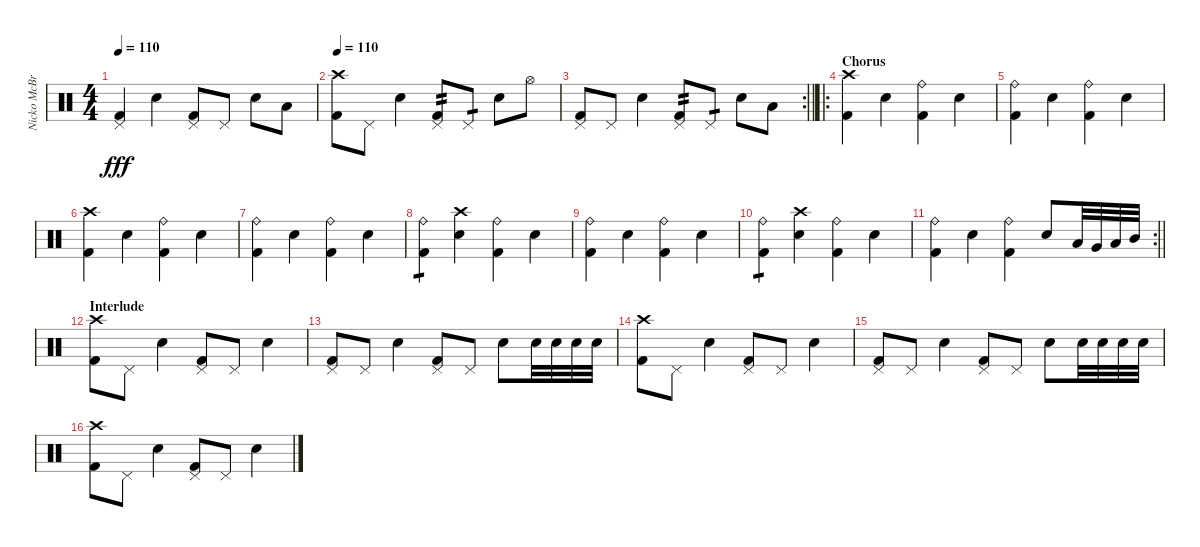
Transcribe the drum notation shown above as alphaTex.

\track ("Nicko McBrain" "Nicko McBr") {instrument percussion}
\staff {score}
\articulation defaults
\ts (4 4)
\tempo 110
\clef neutral
\ks c
("Pedal Hi-Hat (hit)" "Kick (hit) 2").4{dy fff} "Electric Snare (hit)".4 ("Pedal Hi-Hat (hit)" "Kick (hit) 2").8 "Pedal Hi-Hat (hit)".8 "Electric Snare (hit)".8 "Low Floor Tom (hit)".8 |
\tempo 110
("Crash high (hit)" "Kick (hit) 2").8 "Pedal Hi-Hat (hit)".8 "Electric Snare (hit)".4 ("Pedal Hi-Hat (hit)" "Kick (hit) 2").8{tp 2} "Pedal Hi-Hat (hit)".8{tp 1} "Electric Snare (hit)".8 "Hi-Hat (open)".8 |
\rc 2
\barLineRight lightlight
("Pedal Hi-Hat (hit)" "Kick (hit) 2").8 "Pedal Hi-Hat (hit)".8 "Electric Snare (hit)".4 ("Pedal Hi-Hat (hit)" "Kick (hit) 2").8{tp 2} "Pedal Hi-Hat (hit)".8{tp 1} "Electric Snare (hit)".8 "Low Floor Tom (hit)".8 |
\ro
\section ("" "Chorus")
("Crash high (hit)" "Kick (hit) 2").4 "Electric Snare (hit)".4 ("Ride (bell)" "Kick (hit) 2").4 "Electric Snare (hit)".4 |
("Ride (bell)" "Kick (hit) 2").4 "Electric Snare (hit)".4 ("Ride (bell)" "Kick (hit) 2").4 "Electric Snare (hit)".4 |
("Crash high (hit)" "Kick (hit) 2").4 "Electric Snare (hit)".4 ("Ride (bell)" "Kick (hit) 2").4 "Electric Snare (hit)".4 |
("Ride (bell)" "Kick (hit) 2").4 "Electric Snare (hit)".4 ("Ride (bell)" "Kick (hit) 2").4 "Electric Snare (hit)".4 |
("Ride (bell)" "Kick (hit) 2").4{tp 1} ("Electric Snare (hit)" "Crash high (hit)").4 ("Ride (bell)" "Kick (hit) 2").4 "Electric Snare (hit)".4 |
("Ride (bell)" "Kick (hit) 2").4 "Electric Snare (hit)".4 ("Ride (bell)" "Kick (hit) 2").4 "Electric Snare (hit)".4 |
("Ride (bell)" "Kick (hit) 2").4{tp 1} ("Electric Snare (hit)" "Crash high (hit)").4 ("Ride (bell)" "Kick (hit) 2").4 "Electric Snare (hit)".4 |
\rc 2
\barLineRight lightlight
("Ride (bell)" "Kick (hit) 2").4 "Electric Snare (hit)".4 ("Ride (bell)" "Kick (hit) 2").4 "Electric Snare (hit)".8 "Low Floor Tom (hit)".32 "Very Low Tom (hit)".32 "Low Tom (hit)".32 "Mid Tom (hit)".32 |
\section ("" "Interlude")
("Crash high (hit)" "Kick (hit) 2").8 "Pedal Hi-Hat (hit)".8 "Electric Snare (hit)".4 ("Pedal Hi-Hat (hit)" "Kick (hit) 2").8 "Pedal Hi-Hat (hit)".8 "Electric Snare (hit)".4 |
("Pedal Hi-Hat (hit)" "Kick (hit) 2").8 "Pedal Hi-Hat (hit)".8 "Electric Snare (hit)".4 ("Pedal Hi-Hat (hit)" "Kick (hit) 2").8 "Pedal Hi-Hat (hit)".8 "Electric Snare (hit)".8 "Electric Snare (hit)".32 "Electric Snare (hit)".32 "Electric Snare (hit)".32 "Electric Snare (hit)".32 |
("Crash high (hit)" "Kick (hit) 2").8 "Pedal Hi-Hat (hit)".8 "Electric Snare (hit)".4 ("Pedal Hi-Hat (hit)" "Kick (hit) 2").8 "Pedal Hi-Hat (hit)".8 "Electric Snare (hit)".4 |
("Pedal Hi-Hat (hit)" "Kick (hit) 2").8 "Pedal Hi-Hat (hit)".8 "Electric Snare (hit)".4 ("Pedal Hi-Hat (hit)" "Kick (hit) 2").8 "Pedal Hi-Hat (hit)".8 "Electric Snare (hit)".8 "Electric Snare (hit)".32 "Electric Snare (hit)".32 "Electric Snare (hit)".32 "Electric Snare (hit)".32 |
("Crash high (hit)" "Kick (hit) 2").8 "Pedal Hi-Hat (hit)".8 "Electric Snare (hit)".4 ("Pedal Hi-Hat (hit)" "Kick (hit) 2").8 "Pedal Hi-Hat (hit)".8 "Electric Snare (hit)".4
